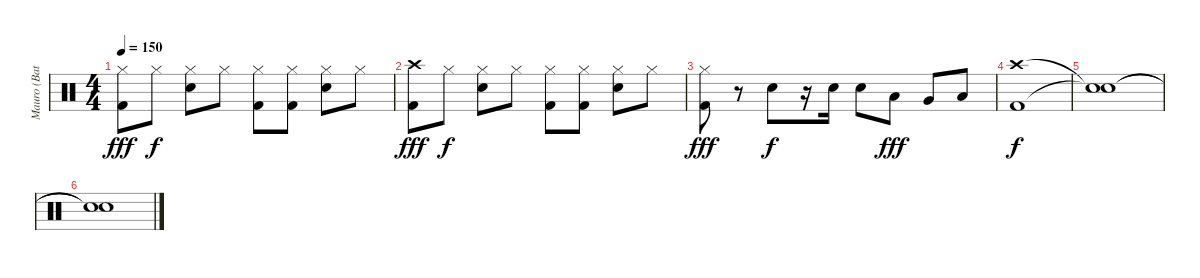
\track ("Mauro (Bateria)" "Mauro (Bat") {instrument percussion}
\staff {score}
\articulation defaults
\ts (4 4)
\tempo 150
\clef neutral
\ks c
("Hi-Hat (closed)" "Kick (hit) 2").8{dy fff} "Hi-Hat (closed)".8{dy f} ("Hi-Hat (closed)" "Snare (hit) 2").8 "Hi-Hat (closed)".8 ("Hi-Hat (closed)" "Kick (hit) 2").8 ("Hi-Hat (closed)" "Kick (hit) 2").8 ("Hi-Hat (closed)" "Snare (hit) 2").8 "Hi-Hat (closed)".8 |
("Crash high (hit)" "Kick (hit) 2").8{dy fff} "Hi-Hat (closed)".8{dy f} ("Hi-Hat (closed)" "Snare (hit) 2").8 "Hi-Hat (closed)".8 ("Hi-Hat (closed)" "Kick (hit) 2").8 ("Hi-Hat (closed)" "Kick (hit) 2").8 ("Hi-Hat (closed)" "Snare (hit) 2").8 "Hi-Hat (closed)".8 |
("Hi-Hat (closed)" "Kick (hit) 2").8{dy fff} r.8 "Snare (hit) 2".8{dy f} r.16 "Snare (hit) 2".16 "Snare (hit) 2".8 "Low Tom (hit)".8{dy fff} "Very Low Tom (hit)".8 "Low Floor Tom (hit)".8 |
("Crash high (hit)" "Kick (hit) 2").1{dy f} |
("Snare (hit)"{t} "Snare (hit)"{t}).1 |
("Snare (hit)"{t} "Snare (hit)"{t}).1
